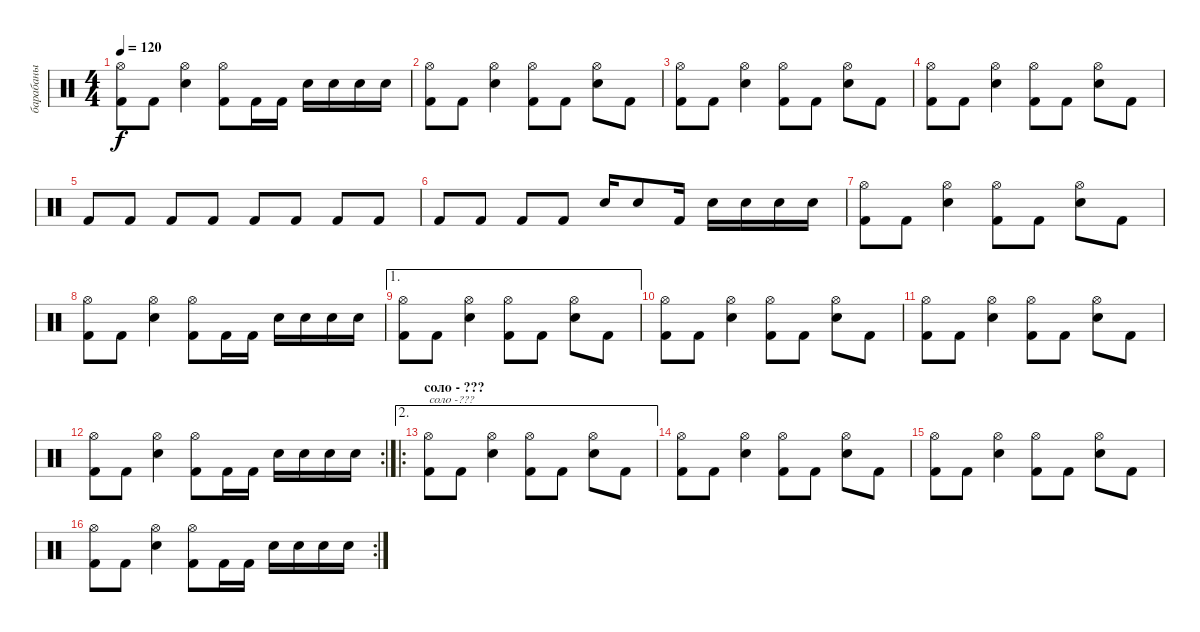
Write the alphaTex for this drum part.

\track ("барабаны" "барабаны") {instrument percussion}
\staff {score}
\articulation defaults
\ts (4 4)
\tempo 120
\clef neutral
\ks c
("Hi-Hat (open)" "Kick (hit) 2").8{dy f} "Kick (hit) 2".8 ("Hi-Hat (open)" "Snare (hit) 2").4 ("Hi-Hat (open)" "Kick (hit) 2").8 "Kick (hit) 2".16 "Kick (hit) 2".16 "Snare (hit) 2".16 "Snare (hit) 2".16 "Snare (hit) 2".16 "Snare (hit) 2".16 |
("Hi-Hat (open)" "Kick (hit) 2").8 "Kick (hit) 2".8 ("Hi-Hat (open)" "Snare (hit) 2").4 ("Hi-Hat (open)" "Kick (hit) 2").8 "Kick (hit) 2".8 ("Hi-Hat (open)" "Snare (hit) 2").8 "Kick (hit) 2".8 |
("Hi-Hat (open)" "Kick (hit) 2").8 "Kick (hit) 2".8 ("Hi-Hat (open)" "Snare (hit) 2").4 ("Hi-Hat (open)" "Kick (hit) 2").8 "Kick (hit) 2".8 ("Hi-Hat (open)" "Snare (hit) 2").8 "Kick (hit) 2".8 |
("Hi-Hat (open)" "Kick (hit) 2").8 "Kick (hit) 2".8 ("Hi-Hat (open)" "Snare (hit) 2").4 ("Hi-Hat (open)" "Kick (hit) 2").8 "Kick (hit) 2".8 ("Hi-Hat (open)" "Snare (hit) 2").8 "Kick (hit) 2".8 |
"Kick (hit) 2".8 "Kick (hit) 2".8 "Kick (hit) 2".8 "Kick (hit) 2".8 "Kick (hit) 2".8 "Kick (hit) 2".8 "Kick (hit) 2".8 "Kick (hit) 2".8 |
"Kick (hit) 2".8 "Kick (hit) 2".8 "Kick (hit) 2".8 "Kick (hit) 2".8 "Snare (hit) 2".16 "Snare (hit) 2".8 "Kick (hit) 2".16 "Snare (hit) 2".16 "Snare (hit) 2".16 "Snare (hit) 2".16 "Snare (hit) 2".16 |
("Hi-Hat (open)" "Kick (hit) 2").8 "Kick (hit) 2".8 ("Hi-Hat (open)" "Snare (hit) 2").4 ("Hi-Hat (open)" "Kick (hit) 2").8 "Kick (hit) 2".8 ("Hi-Hat (open)" "Snare (hit) 2").8 "Kick (hit) 2".8 |
("Hi-Hat (open)" "Kick (hit) 2").8 "Kick (hit) 2".8 ("Hi-Hat (open)" "Snare (hit) 2").4 ("Hi-Hat (open)" "Kick (hit) 2").8 "Kick (hit) 2".16 "Kick (hit) 2".16 "Snare (hit) 2".16 "Snare (hit) 2".16 "Snare (hit) 2".16 "Snare (hit) 2".16 |
\ae 1
("Hi-Hat (open)" "Kick (hit) 2").8 "Kick (hit) 2".8 ("Hi-Hat (open)" "Snare (hit) 2").4 ("Hi-Hat (open)" "Kick (hit) 2").8 "Kick (hit) 2".8 ("Hi-Hat (open)" "Snare (hit) 2").8 "Kick (hit) 2".8 |
("Hi-Hat (open)" "Kick (hit) 2").8 "Kick (hit) 2".8 ("Hi-Hat (open)" "Snare (hit) 2").4 ("Hi-Hat (open)" "Kick (hit) 2").8 "Kick (hit) 2".8 ("Hi-Hat (open)" "Snare (hit) 2").8 "Kick (hit) 2".8 |
("Hi-Hat (open)" "Kick (hit) 2").8 "Kick (hit) 2".8 ("Hi-Hat (open)" "Snare (hit) 2").4 ("Hi-Hat (open)" "Kick (hit) 2").8 "Kick (hit) 2".8 ("Hi-Hat (open)" "Snare (hit) 2").8 "Kick (hit) 2".8 |
\rc 2
("Hi-Hat (open)" "Kick (hit) 2").8 "Kick (hit) 2".8 ("Hi-Hat (open)" "Snare (hit) 2").4 ("Hi-Hat (open)" "Kick (hit) 2").8 "Kick (hit) 2".16 "Kick (hit) 2".16 "Snare (hit) 2".16 "Snare (hit) 2".16 "Snare (hit) 2".16 "Snare (hit) 2".16 |
\ae 2
\ro
\section ("" "соло - ???")
("Hi-Hat (open)" "Kick (hit) 2").8{txt "соло -???"} "Kick (hit) 2".8 ("Hi-Hat (open)" "Snare (hit) 2").4 ("Hi-Hat (open)" "Kick (hit) 2").8 "Kick (hit) 2".8 ("Hi-Hat (open)" "Snare (hit) 2").8 "Kick (hit) 2".8 |
("Hi-Hat (open)" "Kick (hit) 2").8 "Kick (hit) 2".8 ("Hi-Hat (open)" "Snare (hit) 2").4 ("Hi-Hat (open)" "Kick (hit) 2").8 "Kick (hit) 2".8 ("Hi-Hat (open)" "Snare (hit) 2").8 "Kick (hit) 2".8 |
("Hi-Hat (open)" "Kick (hit) 2").8 "Kick (hit) 2".8 ("Hi-Hat (open)" "Snare (hit) 2").4 ("Hi-Hat (open)" "Kick (hit) 2").8 "Kick (hit) 2".8 ("Hi-Hat (open)" "Snare (hit) 2").8 "Kick (hit) 2".8 |
\rc 2
("Hi-Hat (open)" "Kick (hit) 2").8 "Kick (hit) 2".8 ("Hi-Hat (open)" "Snare (hit) 2").4 ("Hi-Hat (open)" "Kick (hit) 2").8 "Kick (hit) 2".16 "Kick (hit) 2".16 "Snare (hit) 2".16 "Snare (hit) 2".16 "Snare (hit) 2".16 "Snare (hit) 2".16
